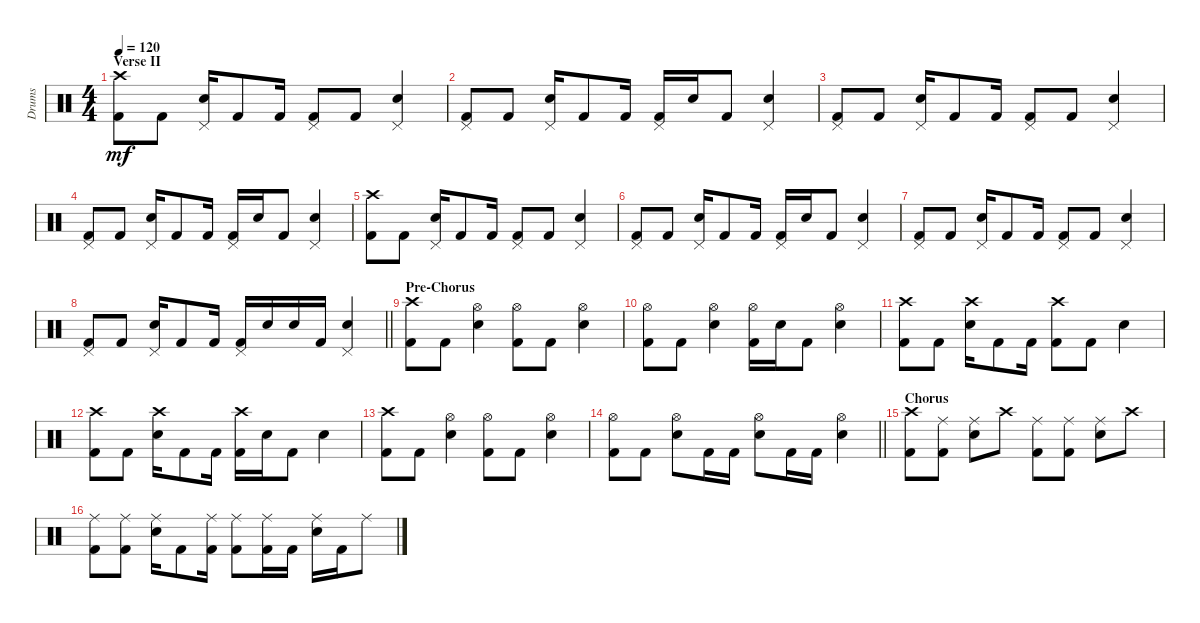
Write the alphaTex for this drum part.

\track ("Drums" "Drums") {instrument percussion}
\staff {score}
\articulation defaults
\ts (4 4)
\section ("" "Verse II")
\tempo 120
\clef neutral
\ks c
("Crash high (hit)" "Kick (hit) 2").8{dy mf} "Kick (hit) 2".8 ("Pedal Hi-Hat (hit)" "Electric Snare (hit)").16 "Kick (hit) 2".8 "Kick (hit) 2".16 ("Pedal Hi-Hat (hit)" "Kick (hit) 2").8 "Kick (hit) 2".8 ("Pedal Hi-Hat (hit)" "Electric Snare (hit)").4 |
("Pedal Hi-Hat (hit)" "Kick (hit) 2").8 "Kick (hit) 2".8 ("Pedal Hi-Hat (hit)" "Electric Snare (hit)").16 "Kick (hit) 2".8 "Kick (hit) 2".16 ("Pedal Hi-Hat (hit)" "Kick (hit) 2").16 "Electric Snare (hit)".16 "Kick (hit) 2".8 ("Pedal Hi-Hat (hit)" "Electric Snare (hit)").4 |
("Pedal Hi-Hat (hit)" "Kick (hit) 2").8 "Kick (hit) 2".8 ("Pedal Hi-Hat (hit)" "Electric Snare (hit)").16 "Kick (hit) 2".8 "Kick (hit) 2".16 ("Pedal Hi-Hat (hit)" "Kick (hit) 2").8 "Kick (hit) 2".8 ("Pedal Hi-Hat (hit)" "Electric Snare (hit)").4 |
("Pedal Hi-Hat (hit)" "Kick (hit) 2").8 "Kick (hit) 2".8 ("Pedal Hi-Hat (hit)" "Electric Snare (hit)").16 "Kick (hit) 2".8 "Kick (hit) 2".16 ("Pedal Hi-Hat (hit)" "Kick (hit) 2").16 "Electric Snare (hit)".16 "Kick (hit) 2".8 ("Pedal Hi-Hat (hit)" "Electric Snare (hit)").4 |
("Crash high (hit)" "Kick (hit) 2").8 "Kick (hit) 2".8 ("Pedal Hi-Hat (hit)" "Electric Snare (hit)").16 "Kick (hit) 2".8 "Kick (hit) 2".16 ("Pedal Hi-Hat (hit)" "Kick (hit) 2").8 "Kick (hit) 2".8 ("Pedal Hi-Hat (hit)" "Electric Snare (hit)").4 |
("Pedal Hi-Hat (hit)" "Kick (hit) 2").8 "Kick (hit) 2".8 ("Pedal Hi-Hat (hit)" "Electric Snare (hit)").16 "Kick (hit) 2".8 "Kick (hit) 2".16 ("Pedal Hi-Hat (hit)" "Kick (hit) 2").16 "Electric Snare (hit)".16 "Kick (hit) 2".8 ("Pedal Hi-Hat (hit)" "Electric Snare (hit)").4 |
("Pedal Hi-Hat (hit)" "Kick (hit) 2").8 "Kick (hit) 2".8 ("Pedal Hi-Hat (hit)" "Electric Snare (hit)").16 "Kick (hit) 2".8 "Kick (hit) 2".16 ("Pedal Hi-Hat (hit)" "Kick (hit) 2").8 "Kick (hit) 2".8 ("Pedal Hi-Hat (hit)" "Electric Snare (hit)").4 |
\barLineRight lightlight
("Pedal Hi-Hat (hit)" "Kick (hit) 2").8 "Kick (hit) 2".8 ("Pedal Hi-Hat (hit)" "Electric Snare (hit)").16 "Kick (hit) 2".8 "Kick (hit) 2".16 ("Pedal Hi-Hat (hit)" "Kick (hit) 2").16 "Electric Snare (hit)".16 "Electric Snare (hit)".16 "Kick (hit) 2".16 ("Pedal Hi-Hat (hit)" "Electric Snare (hit)").4 |
\section ("" "Pre-Chorus")
("Crash high (hit)" "Kick (hit) 2").8 "Kick (hit) 2".8 ("Hi-Hat (open)" "Electric Snare (hit)").4 ("Hi-Hat (open)" "Kick (hit) 2").8 "Kick (hit) 2".8 ("Hi-Hat (open)" "Electric Snare (hit)").4 |
("Hi-Hat (open)" "Kick (hit) 2").8 "Kick (hit) 2".8 ("Hi-Hat (open)" "Electric Snare (hit)").4 ("Hi-Hat (open)" "Kick (hit) 2").16 "Electric Snare (hit)".16 "Kick (hit) 2".8 ("Hi-Hat (open)" "Electric Snare (hit)").4 |
("Crash high (hit)" "Kick (hit) 2").8 "Kick (hit) 2".8 ("Crash high (hit)" "Electric Snare (hit)").16 "Kick (hit) 2".8 "Kick (hit) 2".16 ("Crash high (hit)" "Kick (hit) 2").8 "Kick (hit) 2".8 "Electric Snare (hit)".4 |
("Crash high (hit)" "Kick (hit) 2").8 "Kick (hit) 2".8 ("Crash high (hit)" "Electric Snare (hit)").16 "Kick (hit) 2".8 "Kick (hit) 2".16 ("Crash high (hit)" "Kick (hit) 2").16 "Electric Snare (hit)".16 "Kick (hit) 2".8 "Electric Snare (hit)".4 |
("Crash high (hit)" "Kick (hit) 2").8 "Kick (hit) 2".8 ("Hi-Hat (open)" "Electric Snare (hit)").4 ("Hi-Hat (open)" "Kick (hit) 2").8 "Kick (hit) 2".8 ("Hi-Hat (open)" "Electric Snare (hit)").4 |
\barLineRight lightlight
("Hi-Hat (open)" "Kick (hit) 2").8 "Kick (hit) 2".8 ("Hi-Hat (open)" "Electric Snare (hit)").8 "Kick (hit) 2".16 "Kick (hit) 2".16 ("Hi-Hat (open)" "Electric Snare (hit)").8 "Kick (hit) 2".16 "Kick (hit) 2".16 ("Hi-Hat (open)" "Electric Snare (hit)").4 |
\section ("" "Chorus")
("Crash high (hit)" "Kick (hit) 2").8 ("Ride (middle)" "Kick (hit) 2").8 ("Ride (middle)" "Electric Snare (hit)").8 "Crash high (hit)".8 ("Ride (middle)" "Kick (hit) 2").8 ("Ride (middle)" "Kick (hit) 2").8 ("Ride (middle)" "Electric Snare (hit)").8 "Crash high (hit)".8 |
("Ride (middle)" "Kick (hit) 2").8 ("Ride (middle)" "Kick (hit) 2").8 ("Ride (middle)" "Electric Snare (hit)").16 "Kick (hit) 2".8 ("Ride (middle)" "Kick (hit) 2").16 ("Ride (middle)" "Kick (hit) 2").8 ("Ride (middle)" "Kick (hit) 2").16 "Kick (hit) 2".16 ("Ride (middle)" "Electric Snare (hit)").16 "Kick (hit) 2".16 "Ride (middle)".8
